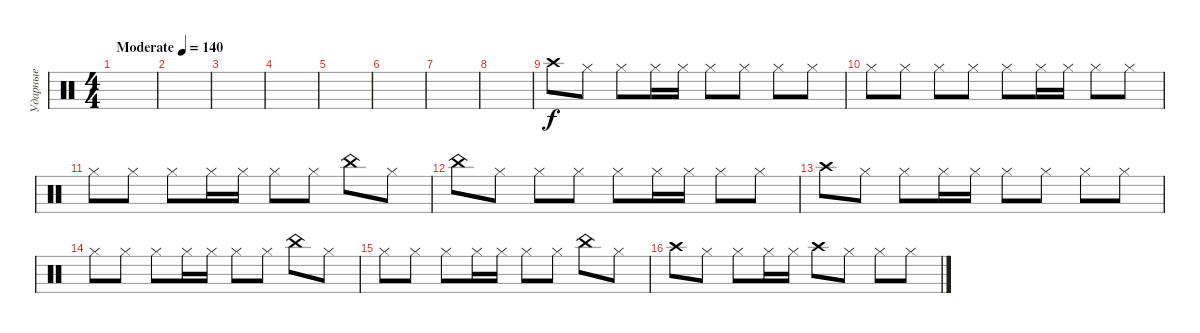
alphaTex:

\track ("Ударные" "Ударные") {instrument percussion}
\staff {score}
\articulation defaults
\ts (4 4)
\tempo (140 "Moderate")
\clef neutral
\ks c
|
|
|
|
|
|
|
|
"Crash high (hit)".8 "Hi-Hat (closed)".8 "Hi-Hat (closed)".8 "Hi-Hat (closed)".16 "Hi-Hat (closed)".16 "Hi-Hat (closed)".8 "Hi-Hat (closed)".8 "Hi-Hat (closed)".8 "Hi-Hat (closed)".8 |
"Hi-Hat (closed)".8 "Hi-Hat (closed)".8 "Hi-Hat (closed)".8 "Hi-Hat (closed)".8 "Hi-Hat (closed)".8 "Hi-Hat (closed)".16 "Hi-Hat (closed)".16 "Hi-Hat (closed)".8 "Hi-Hat (closed)".8 |
"Hi-Hat (closed)".8 "Hi-Hat (closed)".8 "Hi-Hat (closed)".8 "Hi-Hat (closed)".16 "Hi-Hat (closed)".16 "Hi-Hat (closed)".8 "Hi-Hat (closed)".8 "China (hit)".8 "Hi-Hat (closed)".8 |
"China (hit)".8 "Hi-Hat (closed)".8 "Hi-Hat (closed)".8 "Hi-Hat (closed)".8 "Hi-Hat (closed)".8 "Hi-Hat (closed)".16 "Hi-Hat (closed)".16 "Hi-Hat (closed)".8 "Hi-Hat (closed)".8 |
"Crash high (hit)".8 "Hi-Hat (closed)".8 "Hi-Hat (closed)".8 "Hi-Hat (closed)".16 "Hi-Hat (closed)".16 "Hi-Hat (closed)".8 "Hi-Hat (closed)".8 "Hi-Hat (closed)".8 "Hi-Hat (closed)".8 |
"Hi-Hat (closed)".8 "Hi-Hat (closed)".8 "Hi-Hat (closed)".8 "Hi-Hat (closed)".16 "Hi-Hat (closed)".16 "Hi-Hat (closed)".8 "Hi-Hat (closed)".8 "China (hit)".8 "Hi-Hat (closed)".8 |
"Hi-Hat (closed)".8 "Hi-Hat (closed)".8 "Hi-Hat (closed)".8 "Hi-Hat (closed)".16 "Hi-Hat (closed)".16 "Hi-Hat (closed)".8 "Hi-Hat (closed)".8 "China (hit)".8 "Hi-Hat (closed)".8 |
"Crash high (hit)".8 "Hi-Hat (closed)".8 "Hi-Hat (closed)".8 "Hi-Hat (closed)".16 "Hi-Hat (closed)".16 "Crash high (hit)".8 "Hi-Hat (closed)".8 "Hi-Hat (closed)".8 "Hi-Hat (closed)".8
